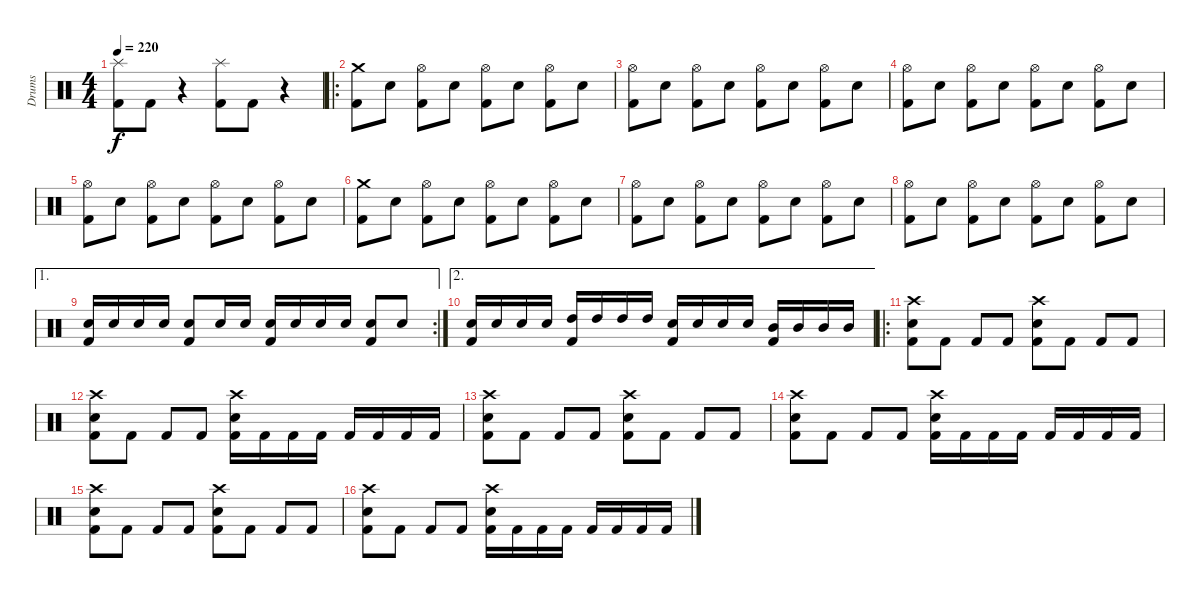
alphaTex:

\track ("Drums" "Drums") {instrument percussion}
\staff {score}
\articulation defaults
\ts (4 4)
\tempo 220
\clef neutral
\ks c
("Splash (hit)" "Kick (hit) 2").8{dy f} "Kick (hit) 2".8 r.4 ("Splash (hit)" "Kick (hit) 2").8 "Kick (hit) 2".8 r.4 |
\ro
("Crash medium (hit)" "Kick (hit) 2").8 "Electric Snare (hit)".8 ("Hi-Hat (open)" "Kick (hit) 2").8 "Electric Snare (hit)".8 ("Hi-Hat (open)" "Kick (hit) 2").8 "Electric Snare (hit)".8 ("Hi-Hat (open)" "Kick (hit) 2").8 "Electric Snare (hit)".8 |
("Hi-Hat (open)" "Kick (hit) 2").8 "Electric Snare (hit)".8 ("Hi-Hat (open)" "Kick (hit) 2").8 "Electric Snare (hit)".8 ("Hi-Hat (open)" "Kick (hit) 2").8 "Electric Snare (hit)".8 ("Hi-Hat (open)" "Kick (hit) 2").8 "Electric Snare (hit)".8 |
("Hi-Hat (open)" "Kick (hit) 2").8 "Electric Snare (hit)".8 ("Hi-Hat (open)" "Kick (hit) 2").8 "Electric Snare (hit)".8 ("Hi-Hat (open)" "Kick (hit) 2").8 "Electric Snare (hit)".8 ("Hi-Hat (open)" "Kick (hit) 2").8 "Electric Snare (hit)".8 |
("Hi-Hat (open)" "Kick (hit) 2").8 "Electric Snare (hit)".8 ("Hi-Hat (open)" "Kick (hit) 2").8 "Electric Snare (hit)".8 ("Hi-Hat (open)" "Kick (hit) 2").8 "Electric Snare (hit)".8 ("Hi-Hat (open)" "Kick (hit) 2").8 "Electric Snare (hit)".8 |
("Crash medium (hit)" "Kick (hit) 2").8 "Electric Snare (hit)".8 ("Hi-Hat (open)" "Kick (hit) 2").8 "Electric Snare (hit)".8 ("Hi-Hat (open)" "Kick (hit) 2").8 "Electric Snare (hit)".8 ("Hi-Hat (open)" "Kick (hit) 2").8 "Electric Snare (hit)".8 |
("Hi-Hat (open)" "Kick (hit) 2").8 "Electric Snare (hit)".8 ("Hi-Hat (open)" "Kick (hit) 2").8 "Electric Snare (hit)".8 ("Hi-Hat (open)" "Kick (hit) 2").8 "Electric Snare (hit)".8 ("Hi-Hat (open)" "Kick (hit) 2").8 "Electric Snare (hit)".8 |
("Hi-Hat (open)" "Kick (hit) 2").8 "Electric Snare (hit)".8 ("Hi-Hat (open)" "Kick (hit) 2").8 "Electric Snare (hit)".8 ("Hi-Hat (open)" "Kick (hit) 2").8 "Electric Snare (hit)".8 ("Hi-Hat (open)" "Kick (hit) 2").8 "Electric Snare (hit)".8 |
\ae 1
\rc 2
("Electric Snare (hit)" "Kick (hit) 2").16 "Electric Snare (hit)".16 "Electric Snare (hit)".16 "Electric Snare (hit)".16 ("Electric Snare (hit)" "Kick (hit) 2").8 "Electric Snare (hit)".16 "Electric Snare (hit)".16 ("Electric Snare (hit)" "Kick (hit) 2").16 "Electric Snare (hit)".16 "Electric Snare (hit)".16 "Electric Snare (hit)".16 ("Electric Snare (hit)" "Kick (hit) 2").8 "Electric Snare (hit)".8 |
\ae 2
("Electric Snare (hit)" "Kick (hit) 2").16 "Electric Snare (hit)".16 "Electric Snare (hit)".16 "Electric Snare (hit)".16 ("High Tom (hit)" "Kick (hit) 2").16 "High Tom (hit)".16 "High Tom (hit)".16 "High Tom (hit)".16 ("Electric Snare (hit)" "Kick (hit) 2").16 "Electric Snare (hit)".16 "Electric Snare (hit)".16 "Electric Snare (hit)".16 ("Mid Tom (hit)" "Kick (hit) 2").16 "Mid Tom (hit)".16 "Mid Tom (hit)".16 "Mid Tom (hit)".16 |
\ro
("Crash high (hit)" "Electric Snare (hit)" "Kick (hit) 2").8 "Kick (hit) 2".8 "Kick (hit) 2".8 "Kick (hit) 2".8 ("Crash high (hit)" "Electric Snare (hit)" "Kick (hit) 2").8 "Kick (hit) 2".8 "Kick (hit) 2".8 "Kick (hit) 2".8 |
("Crash high (hit)" "Electric Snare (hit)" "Kick (hit) 2").8 "Kick (hit) 2".8 "Kick (hit) 2".8 "Kick (hit) 2".8 ("Crash high (hit)" "Electric Snare (hit)" "Kick (hit) 2").16 "Kick (hit) 2".16 "Kick (hit) 2".16 "Kick (hit) 2".16 "Kick (hit) 2".16 "Kick (hit) 2".16 "Kick (hit) 2".16 "Kick (hit) 2".16 |
("Crash high (hit)" "Electric Snare (hit)" "Kick (hit) 2").8 "Kick (hit) 2".8 "Kick (hit) 2".8 "Kick (hit) 2".8 ("Crash high (hit)" "Electric Snare (hit)" "Kick (hit) 2").8 "Kick (hit) 2".8 "Kick (hit) 2".8 "Kick (hit) 2".8 |
("Crash high (hit)" "Electric Snare (hit)" "Kick (hit) 2").8 "Kick (hit) 2".8 "Kick (hit) 2".8 "Kick (hit) 2".8 ("Crash high (hit)" "Electric Snare (hit)" "Kick (hit) 2").16 "Kick (hit) 2".16 "Kick (hit) 2".16 "Kick (hit) 2".16 "Kick (hit) 2".16 "Kick (hit) 2".16 "Kick (hit) 2".16 "Kick (hit) 2".16 |
("Crash high (hit)" "Electric Snare (hit)" "Kick (hit) 2").8 "Kick (hit) 2".8 "Kick (hit) 2".8 "Kick (hit) 2".8 ("Crash high (hit)" "Electric Snare (hit)" "Kick (hit) 2").8 "Kick (hit) 2".8 "Kick (hit) 2".8 "Kick (hit) 2".8 |
("Crash high (hit)" "Electric Snare (hit)" "Kick (hit) 2").8 "Kick (hit) 2".8 "Kick (hit) 2".8 "Kick (hit) 2".8 ("Crash high (hit)" "Electric Snare (hit)" "Kick (hit) 2").16 "Kick (hit) 2".16 "Kick (hit) 2".16 "Kick (hit) 2".16 "Kick (hit) 2".16 "Kick (hit) 2".16 "Kick (hit) 2".16 "Kick (hit) 2".16
